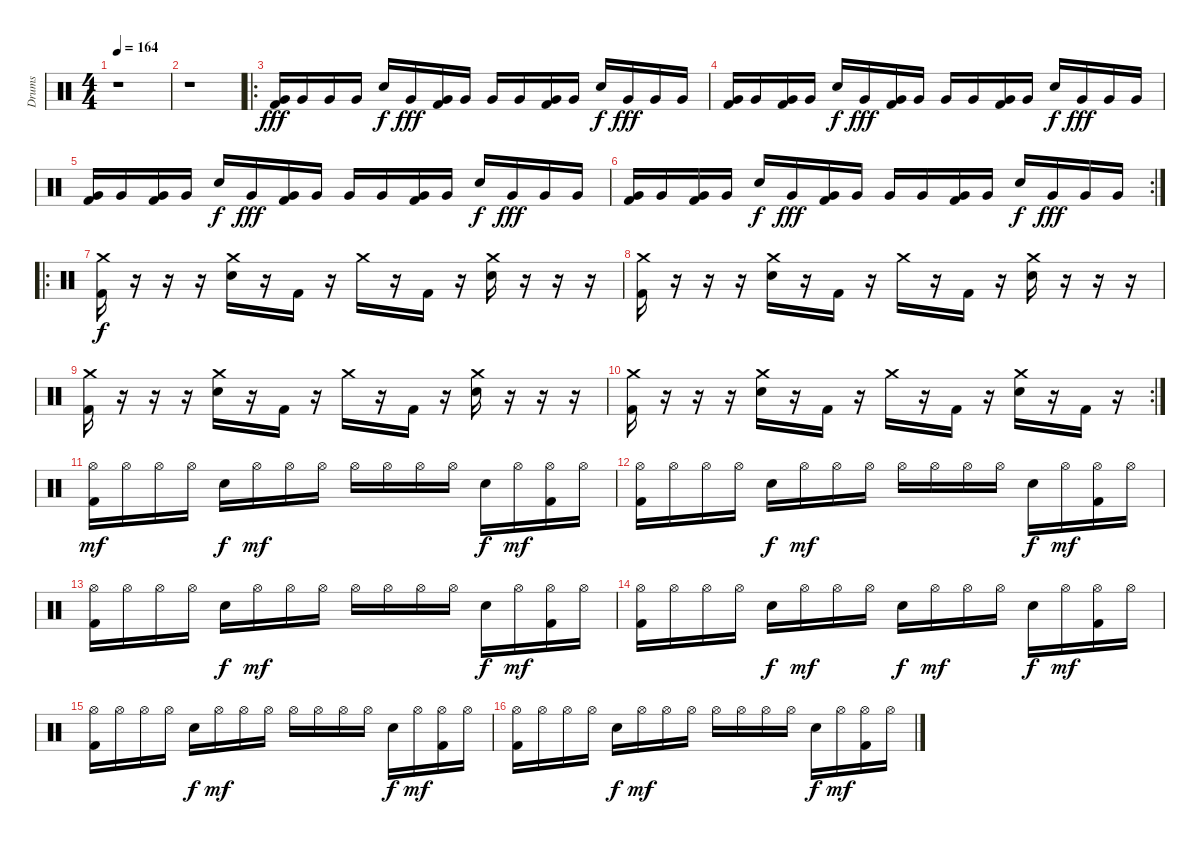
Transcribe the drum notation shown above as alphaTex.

\track ("Drums" "Drums") {instrument percussion}
\staff {score}
\articulation defaults
\ts (4 4)
\tempo 164
\clef neutral
\ks c
r.1{dy f} |
r.1 |
\ro
("Very Low Tom (hit)" "Kick (hit) 2").16{dy fff} "Very Low Tom (hit)".16 "Very Low Tom (hit)".16 "Very Low Tom (hit)".16 "Snare (hit) 2".16{dy f} "Very Low Tom (hit)".16{dy fff} ("Very Low Tom (hit)" "Kick (hit) 2").16 "Very Low Tom (hit)".16 "Very Low Tom (hit)".16 "Very Low Tom (hit)".16 ("Very Low Tom (hit)" "Kick (hit) 2").16 "Very Low Tom (hit)".16 "Snare (hit) 2".16{dy f} "Very Low Tom (hit)".16{dy fff} "Very Low Tom (hit)".16 "Very Low Tom (hit)".16 |
("Very Low Tom (hit)" "Kick (hit) 2").16 "Very Low Tom (hit)".16 ("Very Low Tom (hit)" "Kick (hit) 2").16 "Very Low Tom (hit)".16 "Snare (hit) 2".16{dy f} "Very Low Tom (hit)".16{dy fff} ("Very Low Tom (hit)" "Kick (hit) 2").16 "Very Low Tom (hit)".16 "Very Low Tom (hit)".16 "Very Low Tom (hit)".16 ("Very Low Tom (hit)" "Kick (hit) 2").16 "Very Low Tom (hit)".16 "Snare (hit) 2".16{dy f} "Very Low Tom (hit)".16{dy fff} "Very Low Tom (hit)".16 "Very Low Tom (hit)".16 |
("Very Low Tom (hit)" "Kick (hit) 2").16 "Very Low Tom (hit)".16 ("Very Low Tom (hit)" "Kick (hit) 2").16 "Very Low Tom (hit)".16 "Snare (hit) 2".16{dy f} "Very Low Tom (hit)".16{dy fff} ("Very Low Tom (hit)" "Kick (hit) 2").16 "Very Low Tom (hit)".16 "Very Low Tom (hit)".16 "Very Low Tom (hit)".16 ("Very Low Tom (hit)" "Kick (hit) 2").16 "Very Low Tom (hit)".16 "Snare (hit) 2".16{dy f} "Very Low Tom (hit)".16{dy fff} "Very Low Tom (hit)".16 "Very Low Tom (hit)".16 |
\rc 2
("Very Low Tom (hit)" "Kick (hit) 2").16 "Very Low Tom (hit)".16 ("Very Low Tom (hit)" "Kick (hit) 2").16 "Very Low Tom (hit)".16 "Snare (hit) 2".16{dy f} "Very Low Tom (hit)".16{dy fff} ("Very Low Tom (hit)" "Kick (hit) 2").16 "Very Low Tom (hit)".16 "Very Low Tom (hit)".16 "Very Low Tom (hit)".16 ("Very Low Tom (hit)" "Kick (hit) 2").16 "Very Low Tom (hit)".16 "Snare (hit) 2".16{dy f} "Very Low Tom (hit)".16{dy fff} "Very Low Tom (hit)".16 "Very Low Tom (hit)".16 |
\ro
("Crash medium (hit)" "Kick (hit) 2").16{dy f} r.16 r.16 r.16 ("Crash medium (hit)" "Snare (hit) 2").16 r.16 "Kick (hit) 2".16 r.16 "Crash medium (hit)".16 r.16 "Kick (hit) 2".16 r.16 ("Crash medium (hit)" "Snare (hit) 2").16 r.16 r.16 r.16 |
("Crash medium (hit)" "Kick (hit) 2").16 r.16 r.16 r.16 ("Crash medium (hit)" "Snare (hit) 2").16 r.16 "Kick (hit) 2".16 r.16 "Crash medium (hit)".16 r.16 "Kick (hit) 2".16 r.16 ("Crash medium (hit)" "Snare (hit) 2").16 r.16 r.16 r.16 |
("Crash medium (hit)" "Kick (hit) 2").16 r.16 r.16 r.16 ("Crash medium (hit)" "Snare (hit) 2").16 r.16 "Kick (hit) 2".16 r.16 "Crash medium (hit)".16 r.16 "Kick (hit) 2".16 r.16 ("Crash medium (hit)" "Snare (hit) 2").16 r.16 r.16 r.16 |
\rc 2
("Crash medium (hit)" "Kick (hit) 2").16 r.16 r.16 r.16 ("Crash medium (hit)" "Snare (hit) 2").16 r.16 "Kick (hit) 2".16 r.16 "Crash medium (hit)".16 r.16 "Kick (hit) 2".16 r.16 ("Crash medium (hit)" "Snare (hit) 2").16 r.16 "Kick (hit) 2".16 r.16 |
("Hi-Hat (open)" "Kick (hit) 2").16{dy mf} "Hi-Hat (open)".16 "Hi-Hat (open)".16 "Hi-Hat (open)".16 "Snare (hit) 2".16{dy f} "Hi-Hat (open)".16{dy mf} "Hi-Hat (open)".16 "Hi-Hat (open)".16 "Hi-Hat (open)".16 "Hi-Hat (open)".16 "Hi-Hat (open)".16 "Hi-Hat (open)".16 "Snare (hit) 2".16{dy f} "Hi-Hat (open)".16{dy mf} ("Hi-Hat (open)" "Kick (hit) 2").16 "Hi-Hat (open)".16 |
("Hi-Hat (open)" "Kick (hit) 2").16 "Hi-Hat (open)".16 "Hi-Hat (open)".16 "Hi-Hat (open)".16 "Snare (hit) 2".16{dy f} "Hi-Hat (open)".16{dy mf} "Hi-Hat (open)".16 "Hi-Hat (open)".16 "Hi-Hat (open)".16 "Hi-Hat (open)".16 "Hi-Hat (open)".16 "Hi-Hat (open)".16 "Snare (hit) 2".16{dy f} "Hi-Hat (open)".16{dy mf} ("Hi-Hat (open)" "Kick (hit) 2").16 "Hi-Hat (open)".16 |
("Hi-Hat (open)" "Kick (hit) 2").16 "Hi-Hat (open)".16 "Hi-Hat (open)".16 "Hi-Hat (open)".16 "Snare (hit) 2".16{dy f} "Hi-Hat (open)".16{dy mf} "Hi-Hat (open)".16 "Hi-Hat (open)".16 "Hi-Hat (open)".16 "Hi-Hat (open)".16 "Hi-Hat (open)".16 "Hi-Hat (open)".16 "Snare (hit) 2".16{dy f} "Hi-Hat (open)".16{dy mf} ("Hi-Hat (open)" "Kick (hit) 2").16 "Hi-Hat (open)".16 |
("Hi-Hat (open)" "Kick (hit) 2").16 "Hi-Hat (open)".16 "Hi-Hat (open)".16 "Hi-Hat (open)".16 "Snare (hit) 2".16{dy f} "Hi-Hat (open)".16{dy mf} "Hi-Hat (open)".16 "Hi-Hat (open)".16 "Snare (hit) 2".16{dy f} "Hi-Hat (open)".16{dy mf} "Hi-Hat (open)".16 "Hi-Hat (open)".16 "Snare (hit) 2".16{dy f} "Hi-Hat (open)".16{dy mf} ("Hi-Hat (open)" "Kick (hit) 2").16 "Hi-Hat (open)".16 |
("Hi-Hat (open)" "Kick (hit) 2").16 "Hi-Hat (open)".16 "Hi-Hat (open)".16 "Hi-Hat (open)".16 "Snare (hit) 2".16{dy f} "Hi-Hat (open)".16{dy mf} "Hi-Hat (open)".16 "Hi-Hat (open)".16 "Hi-Hat (open)".16 "Hi-Hat (open)".16 "Hi-Hat (open)".16 "Hi-Hat (open)".16 "Snare (hit) 2".16{dy f} "Hi-Hat (open)".16{dy mf} ("Hi-Hat (open)" "Kick (hit) 2").16 "Hi-Hat (open)".16 |
("Hi-Hat (open)" "Kick (hit) 2").16 "Hi-Hat (open)".16 "Hi-Hat (open)".16 "Hi-Hat (open)".16 "Snare (hit) 2".16{dy f} "Hi-Hat (open)".16{dy mf} "Hi-Hat (open)".16 "Hi-Hat (open)".16 "Hi-Hat (open)".16 "Hi-Hat (open)".16 "Hi-Hat (open)".16 "Hi-Hat (open)".16 "Snare (hit) 2".16{dy f} "Hi-Hat (open)".16{dy mf} ("Hi-Hat (open)" "Kick (hit) 2").16 "Hi-Hat (open)".16
